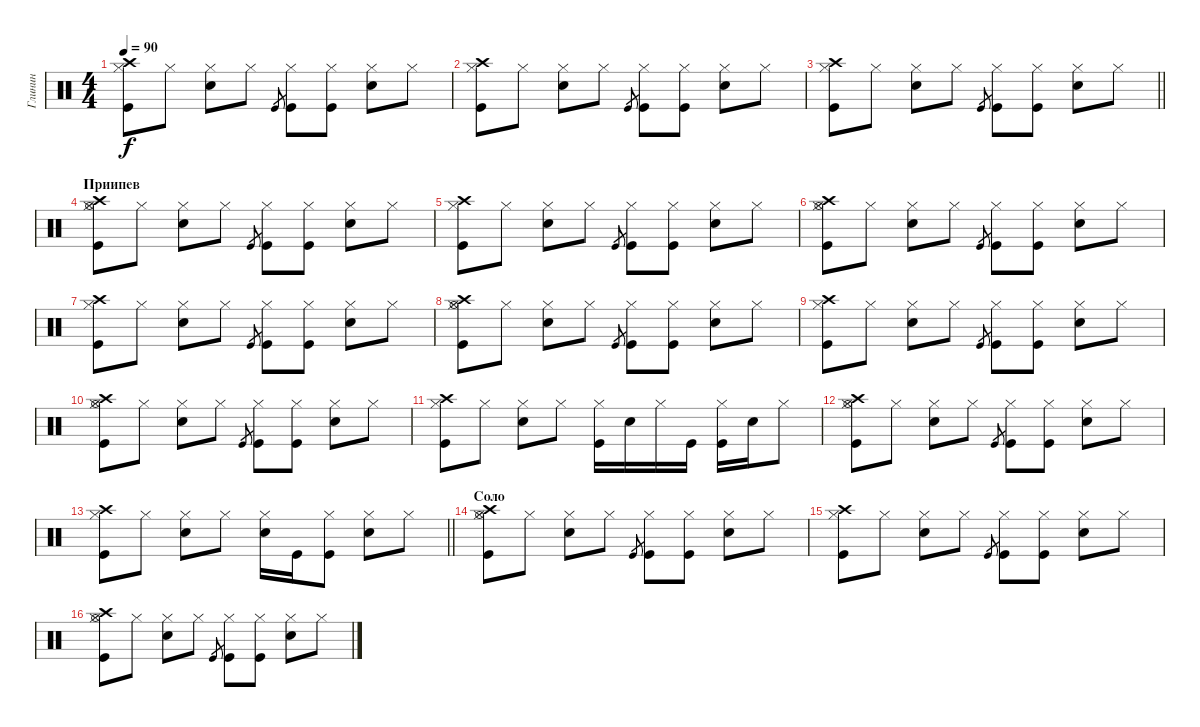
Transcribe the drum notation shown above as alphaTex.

\track ("Глинин" "Глинин") {instrument percussion}
\staff {score}
\articulation defaults
\ts (4 4)
\tempo 90
\clef neutral
\ks c
("Hi-Hat (closed)" "Crash high (hit)" "Kick (hit)").8{dy f} "Hi-Hat (closed)".8 ("Hi-Hat (closed)" "Snare (hit) 2").8 "Hi-Hat (closed)".8 "Kick (hit)".8{gr} ("Hi-Hat (closed)" "Kick (hit)").8 ("Hi-Hat (closed)" "Kick (hit)").8 ("Hi-Hat (closed)" "Snare (hit) 2").8 "Hi-Hat (closed)".8 |
("Hi-Hat (closed)" "Crash high (hit)" "Kick (hit)").8 "Hi-Hat (closed)".8 ("Hi-Hat (closed)" "Snare (hit) 2").8 "Hi-Hat (closed)".8 "Kick (hit)".8{gr} ("Hi-Hat (closed)" "Kick (hit)").8 ("Hi-Hat (closed)" "Kick (hit)").8 ("Hi-Hat (closed)" "Snare (hit) 2").8 "Hi-Hat (closed)".8 |
\barLineRight lightlight
("Hi-Hat (closed)" "Crash high (hit)" "Kick (hit)").8 "Hi-Hat (closed)".8 ("Hi-Hat (closed)" "Snare (hit) 2").8 "Hi-Hat (closed)".8 "Kick (hit)".8{gr} ("Hi-Hat (closed)" "Kick (hit)").8 ("Hi-Hat (closed)" "Kick (hit)").8 ("Hi-Hat (closed)" "Snare (hit) 2").8 "Hi-Hat (closed)".8 |
\section ("" "Приипев")
("Hi-Hat (closed)" "Crash high (hit)" "Kick (hit)" "Hi-Hat (open)").8 "Hi-Hat (closed)".8 ("Hi-Hat (closed)" "Snare (hit) 2").8 "Hi-Hat (closed)".8 "Kick (hit)".8{gr} ("Hi-Hat (closed)" "Kick (hit)").8 ("Hi-Hat (closed)" "Kick (hit)").8 ("Hi-Hat (closed)" "Snare (hit) 2").8 "Hi-Hat (closed)".8 |
("Hi-Hat (closed)" "Crash high (hit)" "Kick (hit)").8 "Hi-Hat (closed)".8 ("Hi-Hat (closed)" "Snare (hit) 2").8 "Hi-Hat (closed)".8 "Kick (hit)".8{gr} ("Hi-Hat (closed)" "Kick (hit)").8 ("Hi-Hat (closed)" "Kick (hit)").8 ("Hi-Hat (closed)" "Snare (hit) 2").8 "Hi-Hat (closed)".8 |
("Hi-Hat (closed)" "Crash high (hit)" "Kick (hit)" "Hi-Hat (open)").8 "Hi-Hat (closed)".8 ("Hi-Hat (closed)" "Snare (hit) 2").8 "Hi-Hat (closed)".8 "Kick (hit)".8{gr} ("Hi-Hat (closed)" "Kick (hit)").8 ("Hi-Hat (closed)" "Kick (hit)").8 ("Hi-Hat (closed)" "Snare (hit) 2").8 "Hi-Hat (closed)".8 |
("Hi-Hat (closed)" "Crash high (hit)" "Kick (hit)").8 "Hi-Hat (closed)".8 ("Hi-Hat (closed)" "Snare (hit) 2").8 "Hi-Hat (closed)".8 "Kick (hit)".8{gr} ("Hi-Hat (closed)" "Kick (hit)").8 ("Hi-Hat (closed)" "Kick (hit)").8 ("Hi-Hat (closed)" "Snare (hit) 2").8 "Hi-Hat (closed)".8 |
("Hi-Hat (closed)" "Crash high (hit)" "Kick (hit)" "Hi-Hat (open)").8 "Hi-Hat (closed)".8 ("Hi-Hat (closed)" "Snare (hit) 2").8 "Hi-Hat (closed)".8 "Kick (hit)".8{gr} ("Hi-Hat (closed)" "Kick (hit)").8 ("Hi-Hat (closed)" "Kick (hit)").8 ("Hi-Hat (closed)" "Snare (hit) 2").8 "Hi-Hat (closed)".8 |
("Hi-Hat (closed)" "Crash high (hit)" "Kick (hit)").8 "Hi-Hat (closed)".8 ("Hi-Hat (closed)" "Snare (hit) 2").8 "Hi-Hat (closed)".8 "Kick (hit)".8{gr} ("Hi-Hat (closed)" "Kick (hit)").8 ("Hi-Hat (closed)" "Kick (hit)").8 ("Hi-Hat (closed)" "Snare (hit) 2").8 "Hi-Hat (closed)".8 |
("Hi-Hat (closed)" "Crash high (hit)" "Kick (hit)" "Hi-Hat (open)").8 "Hi-Hat (closed)".8 ("Hi-Hat (closed)" "Snare (hit) 2").8 "Hi-Hat (closed)".8 "Kick (hit)".8{gr} ("Hi-Hat (closed)" "Kick (hit)").8 ("Hi-Hat (closed)" "Kick (hit)").8 ("Hi-Hat (closed)" "Snare (hit) 2").8 "Hi-Hat (closed)".8 |
("Hi-Hat (closed)" "Crash high (hit)" "Kick (hit)").8 "Hi-Hat (closed)".8 ("Hi-Hat (closed)" "Snare (hit) 2").8 "Hi-Hat (closed)".8 ("Hi-Hat (closed)" "Kick (hit)").16 "Snare (hit) 2".16 "Hi-Hat (closed)".16 "Kick (hit)".16 ("Hi-Hat (closed)" "Kick (hit)").16 "Snare (hit) 2".16 "Hi-Hat (closed)".8 |
("Hi-Hat (closed)" "Crash high (hit)" "Kick (hit)" "Hi-Hat (open)").8 "Hi-Hat (closed)".8 ("Hi-Hat (closed)" "Snare (hit) 2").8 "Hi-Hat (closed)".8 "Kick (hit)".8{gr} ("Hi-Hat (closed)" "Kick (hit)").8 ("Hi-Hat (closed)" "Kick (hit)").8 ("Hi-Hat (closed)" "Snare (hit) 2").8 "Hi-Hat (closed)".8 |
\barLineRight lightlight
("Hi-Hat (closed)" "Crash high (hit)" "Kick (hit)").8 "Hi-Hat (closed)".8 ("Hi-Hat (closed)" "Snare (hit) 2").8 "Hi-Hat (closed)".8 ("Hi-Hat (closed)" "Snare (hit) 2").16 "Kick (hit)".16 ("Hi-Hat (closed)" "Kick (hit)").8 ("Hi-Hat (closed)" "Snare (hit) 2").8 "Hi-Hat (closed)".8 |
\section ("" "Соло")
("Hi-Hat (closed)" "Crash high (hit)" "Kick (hit)" "Hi-Hat (open)").8 "Hi-Hat (closed)".8 ("Hi-Hat (closed)" "Snare (hit) 2").8 "Hi-Hat (closed)".8 "Kick (hit)".8{gr} ("Hi-Hat (closed)" "Kick (hit)").8 ("Hi-Hat (closed)" "Kick (hit)").8 ("Hi-Hat (closed)" "Snare (hit) 2").8 "Hi-Hat (closed)".8 |
("Hi-Hat (closed)" "Crash high (hit)" "Kick (hit)").8 "Hi-Hat (closed)".8 ("Hi-Hat (closed)" "Snare (hit) 2").8 "Hi-Hat (closed)".8 "Kick (hit)".8{gr} ("Hi-Hat (closed)" "Kick (hit)").8 ("Hi-Hat (closed)" "Kick (hit)").8 ("Hi-Hat (closed)" "Snare (hit) 2").8 "Hi-Hat (closed)".8 |
("Hi-Hat (closed)" "Crash high (hit)" "Kick (hit)" "Hi-Hat (open)").8 "Hi-Hat (closed)".8 ("Hi-Hat (closed)" "Snare (hit) 2").8 "Hi-Hat (closed)".8 "Kick (hit)".8{gr} ("Hi-Hat (closed)" "Kick (hit)").8 ("Hi-Hat (closed)" "Kick (hit)").8 ("Hi-Hat (closed)" "Snare (hit) 2").8 "Hi-Hat (closed)".8
